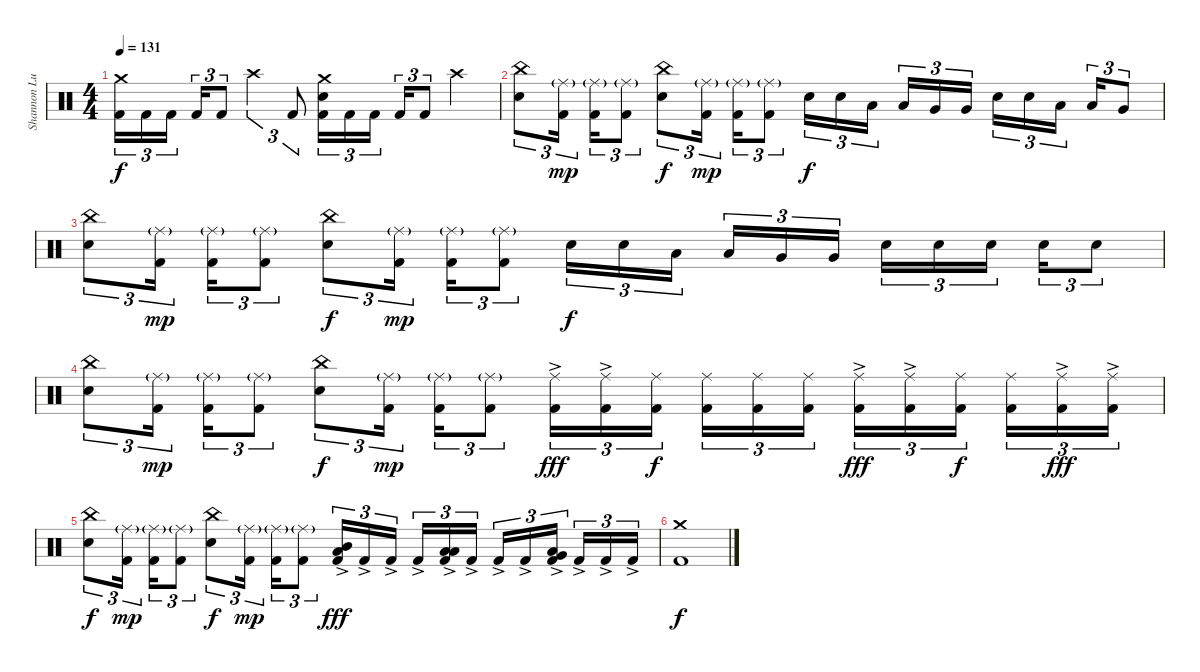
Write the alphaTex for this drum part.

\track ("Shannon Lucas [Drums (Since 2007)]" "Shannon Lu") {instrument percussion}
\staff {score}
\articulation defaults
\ts (4 4)
\tempo 131
\clef neutral
\ks c
("Crash medium (hit)" "Kick (hit) 2").16{tu (3 2) dy f} "Kick (hit) 2".16{tu (3 2)} "Kick (hit) 2".16{tu (3 2)} "Kick (hit) 2".16{tu (3 2)} "Kick (hit) 2".8{tu (3 2)} "Crash high (hit)".4{tu (3 2)} "Kick (hit) 2".8{tu (3 2)} ("Snare (hit) 2" "Crash medium (hit)" "Kick (hit) 2").16{tu (3 2)} "Kick (hit) 2".16{tu (3 2)} "Kick (hit) 2".16{tu (3 2)} "Kick (hit) 2".16{tu (3 2)} "Kick (hit) 2".8{tu (3 2)} "Crash high (hit)".4 |
("China (hit)" "Snare (hit) 2").8{tu (3 2)} ("Ride (middle)"{g} "Kick (hit) 2").16{tu (3 2) dy mp} ("Ride (middle)"{g} "Kick (hit) 2").16{tu (3 2)} ("Ride (middle)"{g} "Kick (hit) 2").8{tu (3 2)} ("China (hit)" "Snare (hit) 2").8{tu (3 2) dy f} ("Ride (middle)"{g} "Kick (hit) 2").16{tu (3 2) dy mp} ("Ride (middle)"{g} "Kick (hit) 2").16{tu (3 2)} ("Ride (middle)"{g} "Kick (hit) 2").8{tu (3 2)} "Snare (hit) 2".16{tu (3 2) dy f} "Snare (hit) 2".16{tu (3 2)} "Low Tom (hit)".16{tu (3 2)} "Low Tom (hit)".16{tu (3 2)} "Very Low Tom (hit)".16{tu (3 2)} "Very Low Tom (hit)".16{tu (3 2)} "Snare (hit) 2".16{tu (3 2)} "Snare (hit) 2".16{tu (3 2)} "Low Tom (hit)".16{tu (3 2)} "Low Tom (hit)".16{tu (3 2)} "Very Low Tom (hit)".8{tu (3 2)} |
("China (hit)" "Snare (hit) 2").8{tu (3 2)} ("Ride (middle)"{g} "Kick (hit) 2").16{tu (3 2) dy mp} ("Ride (middle)"{g} "Kick (hit) 2").16{tu (3 2)} ("Ride (middle)"{g} "Kick (hit) 2").8{tu (3 2)} ("China (hit)" "Snare (hit) 2").8{tu (3 2) dy f} ("Ride (middle)"{g} "Kick (hit) 2").16{tu (3 2) dy mp} ("Ride (middle)"{g} "Kick (hit) 2").16{tu (3 2)} ("Ride (middle)"{g} "Kick (hit) 2").8{tu (3 2)} "Snare (hit) 2".16{tu (3 2) dy f} "Snare (hit) 2".16{tu (3 2)} "Low Tom (hit)".16{tu (3 2)} "Low Tom (hit)".16{tu (3 2)} "Very Low Tom (hit)".16{tu (3 2)} "Very Low Tom (hit)".16{tu (3 2)} "Snare (hit) 2".16{tu (3 2)} "Snare (hit) 2".16{tu (3 2)} "Snare (hit) 2".16{tu (3 2)} "Snare (hit) 2".16{tu (3 2)} "Snare (hit) 2".8{tu (3 2)} |
("China (hit)" "Snare (hit) 2").8{tu (3 2)} ("Ride (middle)"{g} "Kick (hit) 2").16{tu (3 2) dy mp} ("Ride (middle)"{g} "Kick (hit) 2").16{tu (3 2)} ("Ride (middle)"{g} "Kick (hit) 2").8{tu (3 2)} ("China (hit)" "Snare (hit) 2").8{tu (3 2) dy f} ("Ride (middle)"{g} "Kick (hit) 2").16{tu (3 2) dy mp} ("Ride (middle)"{g} "Kick (hit) 2").16{tu (3 2)} ("Ride (middle)"{g} "Kick (hit) 2").8{tu (3 2)} ("Ride (middle)"{ac} "Kick (hit) 2").16{tu (3 2) dy fff} ("Ride (middle)"{ac} "Kick (hit) 2").16{tu (3 2)} ("Ride (middle)" "Kick (hit) 2").16{tu (3 2) dy f} ("Ride (middle)" "Kick (hit) 2").16{tu (3 2)} ("Ride (middle)" "Kick (hit) 2").16{tu (3 2)} ("Ride (middle)" "Kick (hit) 2").16{tu (3 2)} ("Ride (middle)"{ac} "Kick (hit) 2").16{tu (3 2) dy fff} ("Ride (middle)"{ac} "Kick (hit) 2").16{tu (3 2)} ("Ride (middle)" "Kick (hit) 2").16{tu (3 2) dy f} ("Ride (middle)" "Kick (hit) 2").16{tu (3 2)} ("Ride (middle)"{ac} "Kick (hit) 2").16{tu (3 2) dy fff} ("Ride (middle)"{ac} "Kick (hit) 2").16{tu (3 2)} |
("China (hit)" "Snare (hit) 2").8{tu (3 2) dy f} ("Ride (middle)"{g} "Kick (hit) 2").16{tu (3 2) dy mp} ("Ride (middle)"{g} "Kick (hit) 2").16{tu (3 2)} ("Ride (middle)"{g} "Kick (hit) 2").8{tu (3 2)} ("China (hit)" "Snare (hit) 2").8{tu (3 2) dy f} ("Ride (middle)"{g} "Kick (hit) 2").16{tu (3 2) dy mp} ("Ride (middle)"{g} "Kick (hit) 2").16{tu (3 2)} ("Ride (middle)"{g} "Kick (hit) 2").8{tu (3 2)} ("Low Tom (hit)"{ac} "Mid Tom (hit)"{ac} "Kick (hit) 2"{ac}).16{tu (3 2) dy fff} "Kick (hit) 2"{ac}.16{tu (3 2)} "Kick (hit) 2"{ac}.16{tu (3 2)} "Kick (hit) 2"{ac}.16{tu (3 2)} ("Low Floor Tom (hit)"{ac} "Low Tom (hit)"{ac} "Kick (hit) 2"{ac}).16{tu (3 2)} "Kick (hit) 2"{ac}.16{tu (3 2)} "Kick (hit) 2"{ac}.16{tu (3 2)} "Kick (hit) 2"{ac}.16{tu (3 2)} ("Low Floor Tom (hit)"{ac} "Very Low Tom (hit)"{ac} "Kick (hit) 2"{ac}).16{tu (3 2)} "Kick (hit) 2"{ac}.16{tu (3 2)} "Kick (hit) 2"{ac}.16{tu (3 2)} "Kick (hit) 2"{ac}.16{tu (3 2)} |
("Crash medium (hit)" "Kick (hit) 2").1{dy f}
